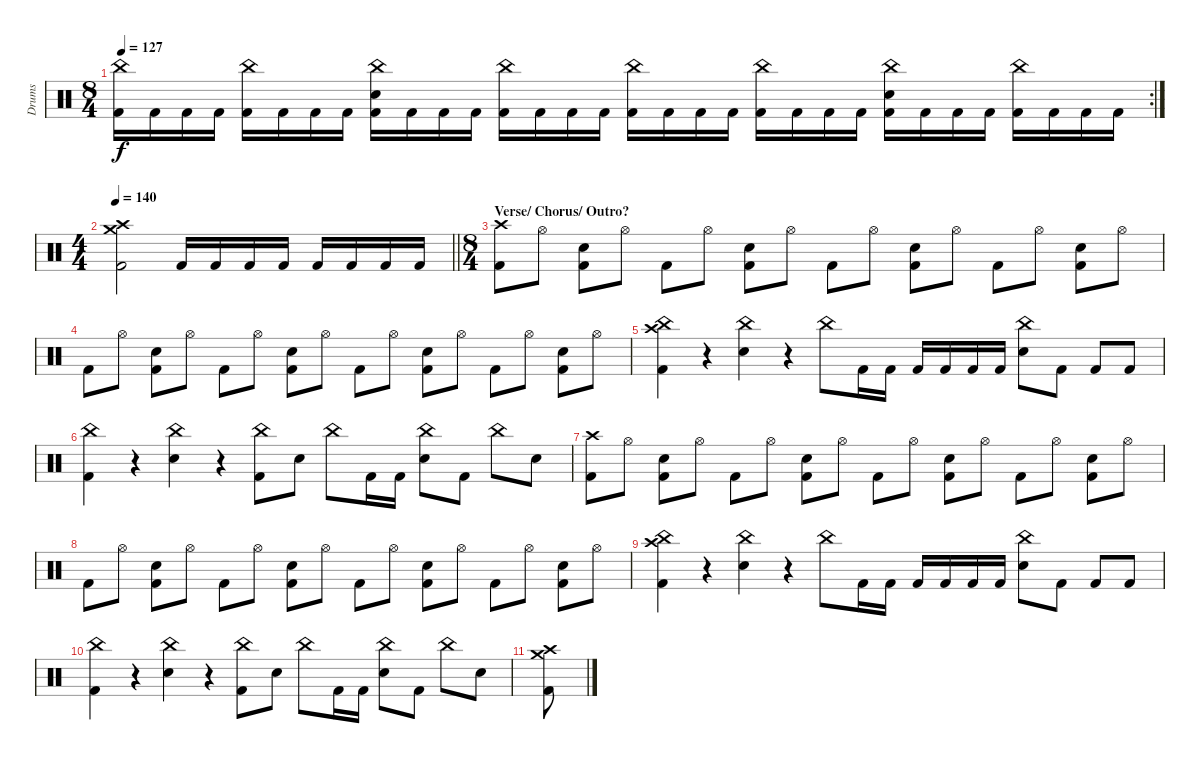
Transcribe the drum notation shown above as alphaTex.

\track ("Drums" "Drums") {instrument percussion}
\staff {score}
\articulation defaults
\rc 2
\ts (8 4)
\tempo 127
\clef neutral
\ks c
("China (hit)" "Kick (hit) 2").16{dy f} "Kick (hit) 2".16 "Kick (hit) 2".16 "Kick (hit) 2".16 ("China (hit)" "Kick (hit) 2").16 "Kick (hit) 2".16 "Kick (hit) 2".16 "Kick (hit) 2".16 ("China (hit)" "Snare (hit) 2" "Kick (hit) 2").16 "Kick (hit) 2".16 "Kick (hit) 2".16 "Kick (hit) 2".16 ("China (hit)" "Kick (hit) 2").16 "Kick (hit) 2".16 "Kick (hit) 2".16 "Kick (hit) 2".16 ("China (hit)" "Kick (hit) 2").16 "Kick (hit) 2".16 "Kick (hit) 2".16 "Kick (hit) 2".16 ("China (hit)" "Kick (hit) 2").16 "Kick (hit) 2".16 "Kick (hit) 2".16 "Kick (hit) 2".16 ("China (hit)" "Snare (hit) 2" "Kick (hit) 2").16 "Kick (hit) 2".16 "Kick (hit) 2".16 "Kick (hit) 2".16 ("China (hit)" "Kick (hit) 2").16 "Kick (hit) 2".16 "Kick (hit) 2".16 "Kick (hit) 2".16 |
\ts (4 4)
\tempo 140
\barLineRight lightlight
("Crash medium (hit)" "Crash high (hit)" "Kick (hit) 2").2 "Kick (hit) 2".16 "Kick (hit) 2".16 "Kick (hit) 2".16 "Kick (hit) 2".16 "Kick (hit) 2".16 "Kick (hit) 2".16 "Kick (hit) 2".16 "Kick (hit) 2".16 |
\ts (8 4)
\section ("" "Verse/ Chorus/ Outro?")
("Crash high (hit)" "Kick (hit) 2").8 "Hi-Hat (open)".8 ("Snare (hit) 2" "Kick (hit) 2").8 "Hi-Hat (open)".8 "Kick (hit) 2".8 "Hi-Hat (open)".8 ("Snare (hit) 2" "Kick (hit) 2").8 "Hi-Hat (open)".8 "Kick (hit) 2".8 "Hi-Hat (open)".8 ("Snare (hit) 2" "Kick (hit) 2").8 "Hi-Hat (open)".8 "Kick (hit) 2".8 "Hi-Hat (open)".8 ("Snare (hit) 2" "Kick (hit) 2").8 "Hi-Hat (open)".8 |
"Kick (hit) 2".8 "Hi-Hat (open)".8 ("Snare (hit) 2" "Kick (hit) 2").8 "Hi-Hat (open)".8 "Kick (hit) 2".8 "Hi-Hat (open)".8 ("Snare (hit) 2" "Kick (hit) 2").8 "Hi-Hat (open)".8 "Kick (hit) 2".8 "Hi-Hat (open)".8 ("Snare (hit) 2" "Kick (hit) 2").8 "Hi-Hat (open)".8 "Kick (hit) 2".8 "Hi-Hat (open)".8 ("Snare (hit) 2" "Kick (hit) 2").8 "Hi-Hat (open)".8 |
("China (hit)" "Crash high (hit)" "Kick (hit) 2").4 r.4 ("China (hit)" "Snare (hit) 2").4 r.4 "China (hit)".8 "Kick (hit) 2".16 "Kick (hit) 2".16 "Kick (hit) 2".16 "Kick (hit) 2".16 "Kick (hit) 2".16 "Kick (hit) 2".16 ("China (hit)" "Snare (hit) 2").8 "Kick (hit) 2".8 "Kick (hit) 2".8 "Kick (hit) 2".8 |
("China (hit)" "Kick (hit) 2").4 r.4 ("China (hit)" "Snare (hit) 2").4 r.4 ("China (hit)" "Kick (hit) 2").8 "Snare (hit) 2".8 "China (hit)".8 "Kick (hit) 2".16 "Kick (hit) 2".16 ("China (hit)" "Snare (hit) 2").8 "Kick (hit) 2".8 "China (hit)".8 "Snare (hit) 2".8 |
("Crash high (hit)" "Kick (hit) 2").8 "Hi-Hat (open)".8 ("Snare (hit) 2" "Kick (hit) 2").8 "Hi-Hat (open)".8 "Kick (hit) 2".8 "Hi-Hat (open)".8 ("Snare (hit) 2" "Kick (hit) 2").8 "Hi-Hat (open)".8 "Kick (hit) 2".8 "Hi-Hat (open)".8 ("Snare (hit) 2" "Kick (hit) 2").8 "Hi-Hat (open)".8 "Kick (hit) 2".8 "Hi-Hat (open)".8 ("Snare (hit) 2" "Kick (hit) 2").8 "Hi-Hat (open)".8 |
"Kick (hit) 2".8 "Hi-Hat (open)".8 ("Snare (hit) 2" "Kick (hit) 2").8 "Hi-Hat (open)".8 "Kick (hit) 2".8 "Hi-Hat (open)".8 ("Snare (hit) 2" "Kick (hit) 2").8 "Hi-Hat (open)".8 "Kick (hit) 2".8 "Hi-Hat (open)".8 ("Snare (hit) 2" "Kick (hit) 2").8 "Hi-Hat (open)".8 "Kick (hit) 2".8 "Hi-Hat (open)".8 ("Snare (hit) 2" "Kick (hit) 2").8 "Hi-Hat (open)".8 |
("China (hit)" "Crash high (hit)" "Kick (hit) 2").4 r.4 ("China (hit)" "Snare (hit) 2").4 r.4 "China (hit)".8 "Kick (hit) 2".16 "Kick (hit) 2".16 "Kick (hit) 2".16 "Kick (hit) 2".16 "Kick (hit) 2".16 "Kick (hit) 2".16 ("China (hit)" "Snare (hit) 2").8 "Kick (hit) 2".8 "Kick (hit) 2".8 "Kick (hit) 2".8 |
("China (hit)" "Kick (hit) 2").4 r.4 ("China (hit)" "Snare (hit) 2").4 r.4 ("China (hit)" "Kick (hit) 2").8 "Snare (hit) 2".8 "China (hit)".8 "Kick (hit) 2".16 "Kick (hit) 2".16 ("China (hit)" "Snare (hit) 2").8 "Kick (hit) 2".8 "China (hit)".8 "Snare (hit) 2".8 |
("Crash medium (hit)" "Crash high (hit)" "Kick (hit) 2").8
